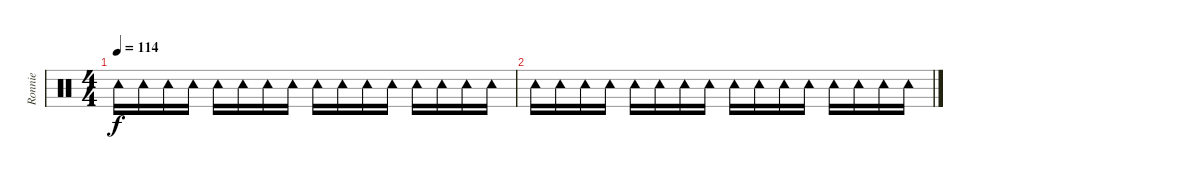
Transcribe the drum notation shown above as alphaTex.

\track ("Ronnie" "Ronnie") {instrument percussion}
\staff {score}
\articulation defaults
\ts (4 4)
\tempo 114
\clef neutral
\ks c "Tambourine (hit)".16{dy f} "Tambourine (hit)".16 "Tambourine (hit)".16 "Tambourine (hit)".16 "Tambourine (hit)".16 "Tambourine (hit)".16 "Tambourine (hit)".16 "Tambourine (hit)".16 "Tambourine (hit)".16 "Tambourine (hit)".16 "Tambourine (hit)".16 "Tambourine (hit)".16 "Tambourine (hit)".16 "Tambourine (hit)".16 "Tambourine (hit)".16 "Tambourine (hit)".16
|
"Tambourine (hit)".16 "Tambourine (hit)".16 "Tambourine (hit)".16 "Tambourine (hit)".16 "Tambourine (hit)".16 "Tambourine (hit)".16 "Tambourine (hit)".16 "Tambourine (hit)".16 "Tambourine (hit)".16 "Tambourine (hit)".16 "Tambourine (hit)".16 "Tambourine (hit)".16 "Tambourine (hit)".16 "Tambourine (hit)".16 "Tambourine (hit)".16 "Tambourine (hit)".16
